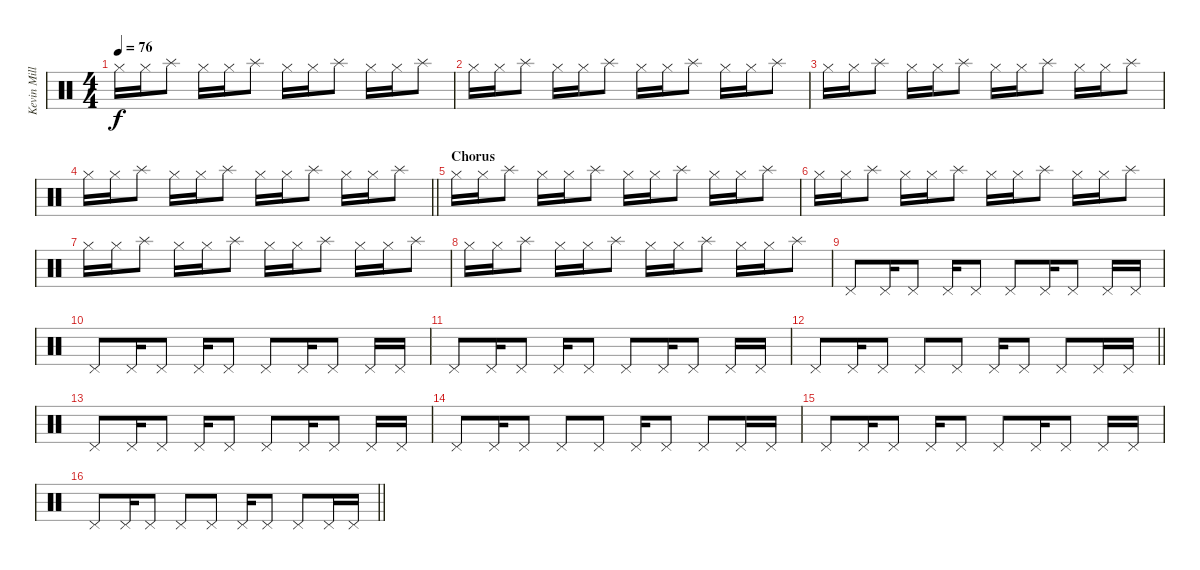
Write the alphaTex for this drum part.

\track ("Kevin Miller (Drums)" "Kevin Mill") {instrument percussion}
\staff {score}
\articulation defaults
\ts (4 4)
\tempo 76
\clef neutral
\ks c "Hi-Hat (closed)".16{dy f} "Hi-Hat (closed)".16 "Splash (hit)".8 "Hi-Hat (closed)".16 "Hi-Hat (closed)".16 "Splash (hit)".8 "Hi-Hat (closed)".16 "Hi-Hat (closed)".16 "Splash (hit)".8 "Hi-Hat (closed)".16 "Hi-Hat (closed)".16 "Splash (hit)".8
|
"Hi-Hat (closed)".16 "Hi-Hat (closed)".16 "Splash (hit)".8 "Hi-Hat (closed)".16 "Hi-Hat (closed)".16 "Splash (hit)".8 "Hi-Hat (closed)".16 "Hi-Hat (closed)".16 "Splash (hit)".8 "Hi-Hat (closed)".16 "Hi-Hat (closed)".16 "Splash (hit)".8 |
"Hi-Hat (closed)".16 "Hi-Hat (closed)".16 "Splash (hit)".8 "Hi-Hat (closed)".16 "Hi-Hat (closed)".16 "Splash (hit)".8 "Hi-Hat (closed)".16 "Hi-Hat (closed)".16 "Splash (hit)".8 "Hi-Hat (closed)".16 "Hi-Hat (closed)".16 "Splash (hit)".8 |
\barLineRight lightlight "Hi-Hat (closed)".16 "Hi-Hat (closed)".16 "Splash (hit)".8 "Hi-Hat (closed)".16 "Hi-Hat (closed)".16 "Splash (hit)".8 "Hi-Hat (closed)".16 "Hi-Hat (closed)".16 "Splash (hit)".8 "Hi-Hat (closed)".16 "Hi-Hat (closed)".16 "Splash (hit)".8
|
\section ("" "Chorus")
"Hi-Hat (closed)".16 "Hi-Hat (closed)".16 "Splash (hit)".8 "Hi-Hat (closed)".16 "Hi-Hat (closed)".16 "Splash (hit)".8 "Hi-Hat (closed)".16 "Hi-Hat (closed)".16 "Splash (hit)".8 "Hi-Hat (closed)".16 "Hi-Hat (closed)".16 "Splash (hit)".8 |
"Hi-Hat (closed)".16 "Hi-Hat (closed)".16 "Splash (hit)".8 "Hi-Hat (closed)".16 "Hi-Hat (closed)".16 "Splash (hit)".8 "Hi-Hat (closed)".16 "Hi-Hat (closed)".16 "Splash (hit)".8 "Hi-Hat (closed)".16 "Hi-Hat (closed)".16 "Splash (hit)".8 |
"Hi-Hat (closed)".16 "Hi-Hat (closed)".16 "Splash (hit)".8 "Hi-Hat (closed)".16 "Hi-Hat (closed)".16 "Splash (hit)".8 "Hi-Hat (closed)".16 "Hi-Hat (closed)".16 "Splash (hit)".8 "Hi-Hat (closed)".16 "Hi-Hat (closed)".16 "Splash (hit)".8 |
"Hi-Hat (closed)".16 "Hi-Hat (closed)".16 "Splash (hit)".8 "Hi-Hat (closed)".16 "Hi-Hat (closed)".16 "Splash (hit)".8 "Hi-Hat (closed)".16 "Hi-Hat (closed)".16 "Splash (hit)".8 "Hi-Hat (closed)".16 "Hi-Hat (closed)".16 "Splash (hit)".8 |
"Pedal Hi-Hat (hit)".8 "Pedal Hi-Hat (hit)".16 "Pedal Hi-Hat (hit)".8 "Pedal Hi-Hat (hit)".16 "Pedal Hi-Hat (hit)".8 "Pedal Hi-Hat (hit)".8 "Pedal Hi-Hat (hit)".16 "Pedal Hi-Hat (hit)".8 "Pedal Hi-Hat (hit)".16 "Pedal Hi-Hat (hit)".16 |
"Pedal Hi-Hat (hit)".8 "Pedal Hi-Hat (hit)".16 "Pedal Hi-Hat (hit)".8 "Pedal Hi-Hat (hit)".16 "Pedal Hi-Hat (hit)".8 "Pedal Hi-Hat (hit)".8 "Pedal Hi-Hat (hit)".16 "Pedal Hi-Hat (hit)".8 "Pedal Hi-Hat (hit)".16 "Pedal Hi-Hat (hit)".16 |
"Pedal Hi-Hat (hit)".8 "Pedal Hi-Hat (hit)".16 "Pedal Hi-Hat (hit)".8 "Pedal Hi-Hat (hit)".16 "Pedal Hi-Hat (hit)".8 "Pedal Hi-Hat (hit)".8 "Pedal Hi-Hat (hit)".16 "Pedal Hi-Hat (hit)".8 "Pedal Hi-Hat (hit)".16 "Pedal Hi-Hat (hit)".16 |
\barLineRight lightlight "Pedal Hi-Hat (hit)".8 "Pedal Hi-Hat (hit)".16 "Pedal Hi-Hat (hit)".8 "Pedal Hi-Hat (hit)".8 "Pedal Hi-Hat (hit)".8 "Pedal Hi-Hat (hit)".16 "Pedal Hi-Hat (hit)".8 "Pedal Hi-Hat (hit)".8 "Pedal Hi-Hat (hit)".16 "Pedal Hi-Hat (hit)".16
|
"Pedal Hi-Hat (hit)".8 "Pedal Hi-Hat (hit)".16 "Pedal Hi-Hat (hit)".8 "Pedal Hi-Hat (hit)".16 "Pedal Hi-Hat (hit)".8 "Pedal Hi-Hat (hit)".8 "Pedal Hi-Hat (hit)".16 "Pedal Hi-Hat (hit)".8 "Pedal Hi-Hat (hit)".16 "Pedal Hi-Hat (hit)".16 |
"Pedal Hi-Hat (hit)".8 "Pedal Hi-Hat (hit)".16 "Pedal Hi-Hat (hit)".8 "Pedal Hi-Hat (hit)".8 "Pedal Hi-Hat (hit)".8 "Pedal Hi-Hat (hit)".16 "Pedal Hi-Hat (hit)".8 "Pedal Hi-Hat (hit)".8 "Pedal Hi-Hat (hit)".16 "Pedal Hi-Hat (hit)".16 |
"Pedal Hi-Hat (hit)".8 "Pedal Hi-Hat (hit)".16 "Pedal Hi-Hat (hit)".8 "Pedal Hi-Hat (hit)".16 "Pedal Hi-Hat (hit)".8 "Pedal Hi-Hat (hit)".8 "Pedal Hi-Hat (hit)".16 "Pedal Hi-Hat (hit)".8 "Pedal Hi-Hat (hit)".16 "Pedal Hi-Hat (hit)".16 |
\barLineRight lightlight "Pedal Hi-Hat (hit)".8 "Pedal Hi-Hat (hit)".16 "Pedal Hi-Hat (hit)".8 "Pedal Hi-Hat (hit)".8 "Pedal Hi-Hat (hit)".8 "Pedal Hi-Hat (hit)".16 "Pedal Hi-Hat (hit)".8 "Pedal Hi-Hat (hit)".8 "Pedal Hi-Hat (hit)".16 "Pedal Hi-Hat (hit)".16
